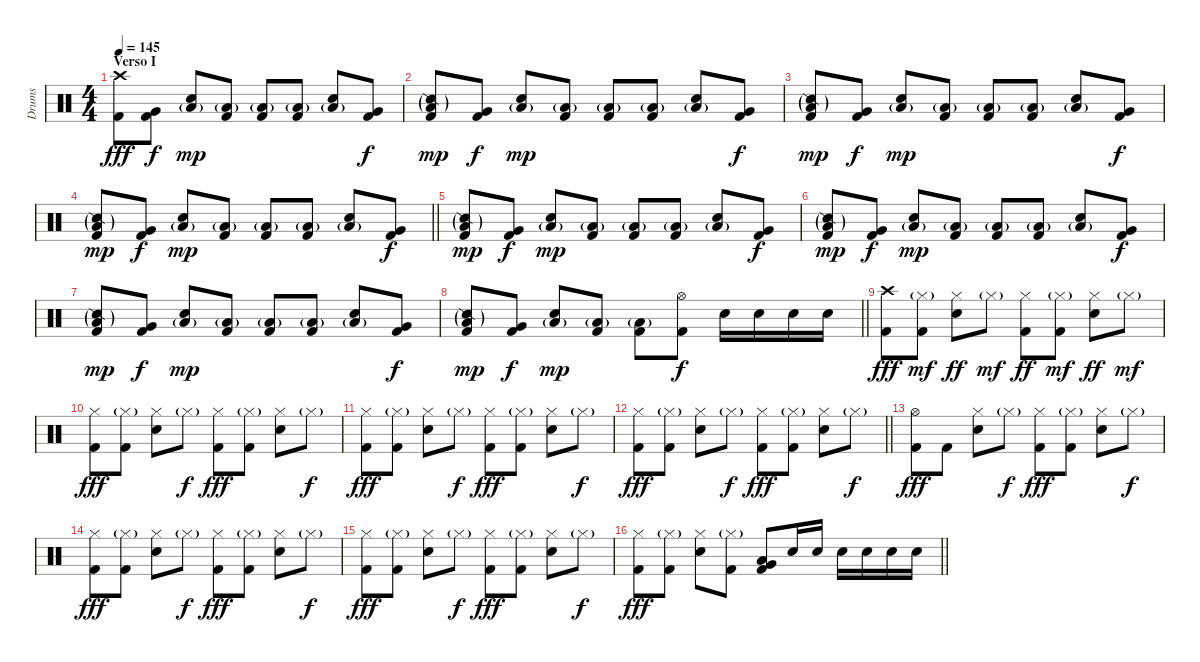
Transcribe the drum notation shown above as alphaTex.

\track ("Drums" "Drums") {instrument percussion}
\staff {score}
\articulation defaults
\ts (4 4)
\section ("" "Verso I")
\tempo 145
\clef neutral
\ks c
("Kick (hit) 2" "Crash high (hit)").8{dy fff} ("Kick (hit) 2" "Very Low Tom (hit)").8{dy f} ("Snare (hit) 2" "Low Floor Tom (hit)"{g}).8{dy mp} ("Kick (hit) 2" "Low Floor Tom (hit)"{g}).8 ("Kick (hit) 2" "Low Floor Tom (hit)"{g}).8 ("Kick (hit) 2" "Low Floor Tom (hit)"{g}).8 ("Snare (hit) 2" "Low Floor Tom (hit)"{g}).8 ("Kick (hit) 2" "Very Low Tom (hit)").8{dy f} |
("Kick (hit) 2" "Low Floor Tom (hit)"{g} "Snare (side stick) 2"{g}).8{dy mp} ("Kick (hit) 2" "Very Low Tom (hit)").8{dy f} ("Snare (hit) 2" "Low Floor Tom (hit)"{g}).8{dy mp} ("Kick (hit) 2" "Low Floor Tom (hit)"{g}).8 ("Kick (hit) 2" "Low Floor Tom (hit)"{g}).8 ("Kick (hit) 2" "Low Floor Tom (hit)"{g}).8 ("Snare (hit) 2" "Low Floor Tom (hit)"{g}).8 ("Kick (hit) 2" "Very Low Tom (hit)").8{dy f} |
("Kick (hit) 2" "Low Floor Tom (hit)"{g} "Snare (side stick) 2"{g}).8{dy mp} ("Kick (hit) 2" "Very Low Tom (hit)").8{dy f} ("Snare (hit) 2" "Low Floor Tom (hit)"{g}).8{dy mp} ("Kick (hit) 2" "Low Floor Tom (hit)"{g}).8 ("Kick (hit) 2" "Low Floor Tom (hit)"{g}).8 ("Kick (hit) 2" "Low Floor Tom (hit)"{g}).8 ("Snare (hit) 2" "Low Floor Tom (hit)"{g}).8 ("Kick (hit) 2" "Very Low Tom (hit)").8{dy f} |
\barLineRight lightlight
("Kick (hit) 2" "Low Floor Tom (hit)"{g} "Snare (side stick) 2"{g}).8{dy mp} ("Kick (hit) 2" "Very Low Tom (hit)").8{dy f} ("Snare (hit) 2" "Low Floor Tom (hit)"{g}).8{dy mp} ("Kick (hit) 2" "Low Floor Tom (hit)"{g}).8 ("Kick (hit) 2" "Low Floor Tom (hit)"{g}).8 ("Kick (hit) 2" "Low Floor Tom (hit)"{g}).8 ("Snare (hit) 2" "Low Floor Tom (hit)"{g}).8 ("Kick (hit) 2" "Very Low Tom (hit)").8{dy f} |
("Kick (hit) 2" "Low Floor Tom (hit)"{g} "Snare (side stick) 2"{g}).8{dy mp} ("Kick (hit) 2" "Very Low Tom (hit)").8{dy f} ("Snare (hit) 2" "Low Floor Tom (hit)"{g}).8{dy mp} ("Kick (hit) 2" "Low Floor Tom (hit)"{g}).8 ("Kick (hit) 2" "Low Floor Tom (hit)"{g}).8 ("Kick (hit) 2" "Low Floor Tom (hit)"{g}).8 ("Snare (hit) 2" "Low Floor Tom (hit)"{g}).8 ("Kick (hit) 2" "Very Low Tom (hit)").8{dy f} |
("Kick (hit) 2" "Low Floor Tom (hit)"{g} "Snare (side stick) 2"{g}).8{dy mp} ("Kick (hit) 2" "Very Low Tom (hit)").8{dy f} ("Snare (hit) 2" "Low Floor Tom (hit)"{g}).8{dy mp} ("Kick (hit) 2" "Low Floor Tom (hit)"{g}).8 ("Kick (hit) 2" "Low Floor Tom (hit)"{g}).8 ("Kick (hit) 2" "Low Floor Tom (hit)"{g}).8 ("Snare (hit) 2" "Low Floor Tom (hit)"{g}).8 ("Kick (hit) 2" "Very Low Tom (hit)").8{dy f} |
("Kick (hit) 2" "Low Floor Tom (hit)"{g} "Snare (side stick) 2"{g}).8{dy mp} ("Kick (hit) 2" "Very Low Tom (hit)").8{dy f} ("Snare (hit) 2" "Low Floor Tom (hit)"{g}).8{dy mp} ("Kick (hit) 2" "Low Floor Tom (hit)"{g}).8 ("Kick (hit) 2" "Low Floor Tom (hit)"{g}).8 ("Kick (hit) 2" "Low Floor Tom (hit)"{g}).8 ("Snare (hit) 2" "Low Floor Tom (hit)"{g}).8 ("Kick (hit) 2" "Very Low Tom (hit)").8{dy f} |
\barLineRight lightlight
("Kick (hit) 2" "Low Floor Tom (hit)"{g} "Snare (side stick) 2"{g}).8{dy mp} ("Kick (hit) 2" "Very Low Tom (hit)").8{dy f} ("Snare (hit) 2" "Low Floor Tom (hit)"{g}).8{dy mp} ("Kick (hit) 2" "Low Floor Tom (hit)"{g}).8 ("Kick (hit) 2" "Low Floor Tom (hit)"{g}).8 ("Kick (hit) 2" "Hi-Hat (open)").8{dy f} "Snare (hit) 2".16 "Snare (hit) 2".16 "Snare (hit) 2".16 "Snare (hit) 2".16 |
("Kick (hit) 2" "Crash high (hit)").8{dy fff} ("Kick (hit) 2" "Hi-Hat (closed)"{g}).8{dy mf} ("Snare (hit) 2" "Hi-Hat (closed)").8{dy ff} "Hi-Hat (closed)"{g}.8{dy mf} ("Kick (hit) 2" "Hi-Hat (closed)").8{dy ff} ("Kick (hit) 2" "Hi-Hat (closed)"{g}).8{dy mf} ("Snare (hit) 2" "Hi-Hat (closed)").8{dy ff} "Hi-Hat (closed)"{g}.8{dy mf} |
("Kick (hit) 2" "Hi-Hat (closed)").8{dy fff} ("Kick (hit) 2" "Hi-Hat (closed)"{g}).8 ("Snare (hit) 2" "Hi-Hat (closed)").8 "Hi-Hat (closed)"{g}.8{dy f} ("Kick (hit) 2" "Hi-Hat (closed)").8{dy fff} ("Kick (hit) 2" "Hi-Hat (closed)"{g}).8 ("Snare (hit) 2" "Hi-Hat (closed)").8 "Hi-Hat (closed)"{g}.8{dy f} |
("Kick (hit) 2" "Hi-Hat (closed)").8{dy fff} ("Kick (hit) 2" "Hi-Hat (closed)"{g}).8 ("Snare (hit) 2" "Hi-Hat (closed)").8 "Hi-Hat (closed)"{g}.8{dy f} ("Kick (hit) 2" "Hi-Hat (closed)").8{dy fff} ("Kick (hit) 2" "Hi-Hat (closed)"{g}).8 ("Snare (hit) 2" "Hi-Hat (closed)").8 "Hi-Hat (closed)"{g}.8{dy f} |
\barLineRight lightlight
("Kick (hit) 2" "Hi-Hat (closed)").8{dy fff} ("Kick (hit) 2" "Hi-Hat (closed)"{g}).8 ("Snare (hit) 2" "Hi-Hat (closed)").8 "Hi-Hat (closed)"{g}.8{dy f} ("Kick (hit) 2" "Hi-Hat (closed)").8{dy fff} ("Kick (hit) 2" "Hi-Hat (closed)"{g}).8 ("Snare (hit) 2" "Hi-Hat (closed)").8 "Hi-Hat (closed)"{g}.8{dy f} |
("Kick (hit) 2" "Hi-Hat (open)").8{dy fff} "Kick (hit) 2".8 ("Snare (hit) 2" "Hi-Hat (closed)").8 "Hi-Hat (closed)"{g}.8{dy f} ("Kick (hit) 2" "Hi-Hat (closed)").8{dy fff} ("Kick (hit) 2" "Hi-Hat (closed)"{g}).8 ("Snare (hit) 2" "Hi-Hat (closed)").8 "Hi-Hat (closed)"{g}.8{dy f} |
("Kick (hit) 2" "Hi-Hat (closed)").8{dy fff} ("Kick (hit) 2" "Hi-Hat (closed)"{g}).8 ("Snare (hit) 2" "Hi-Hat (closed)").8 "Hi-Hat (closed)"{g}.8{dy f} ("Kick (hit) 2" "Hi-Hat (closed)").8{dy fff} ("Kick (hit) 2" "Hi-Hat (closed)"{g}).8 ("Snare (hit) 2" "Hi-Hat (closed)").8 "Hi-Hat (closed)"{g}.8{dy f} |
("Kick (hit) 2" "Hi-Hat (closed)").8{dy fff} ("Kick (hit) 2" "Hi-Hat (closed)"{g}).8 ("Snare (hit) 2" "Hi-Hat (closed)").8 "Hi-Hat (closed)"{g}.8{dy f} ("Kick (hit) 2" "Hi-Hat (closed)").8{dy fff} ("Kick (hit) 2" "Hi-Hat (closed)"{g}).8 ("Snare (hit) 2" "Hi-Hat (closed)").8 "Hi-Hat (closed)"{g}.8{dy f} |
\barLineRight lightlight
("Kick (hit) 2" "Hi-Hat (closed)").8{dy fff} ("Kick (hit) 2" "Hi-Hat (closed)"{g}).8 ("Snare (hit) 2" "Hi-Hat (closed)").8 ("Kick (hit) 2" "Hi-Hat (closed)"{g}).8 ("Kick (hit) 2" "Low Floor Tom (hit)" "Very Low Tom (hit)").8 "Snare (hit) 2".16 "Snare (hit) 2".16 "Snare (hit) 2".16 "Snare (hit) 2".16 "Snare (hit) 2".16 "Snare (hit) 2".16
